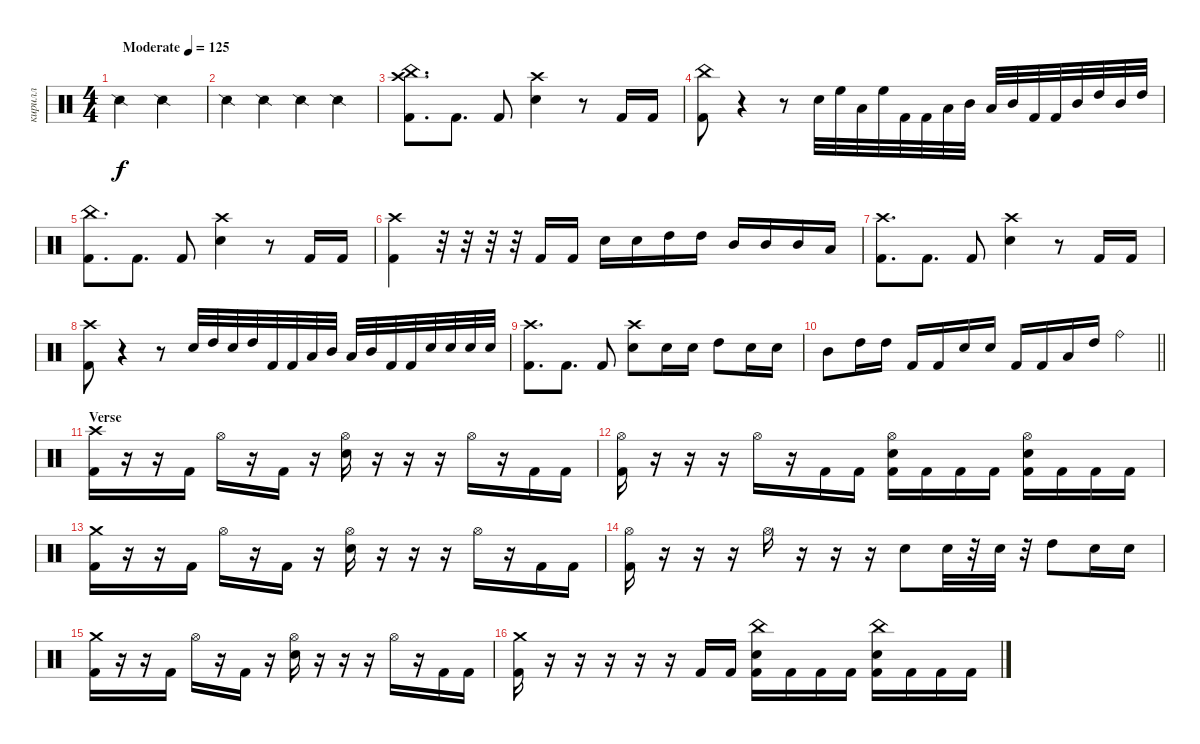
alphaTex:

\track ("кирилл" "кирилл") {instrument percussion}
\staff {score}
\articulation defaults
\ts (4 4)
\tempo (125 "Moderate")
\clef neutral
\ks c "Snare (side stick) 2".2{dy f} "Snare (side stick) 2".2
|
"Snare (side stick) 2".4 "Snare (side stick) 2".4 "Snare (side stick) 2".4 "Snare (side stick) 2".4 |
("Crash high (hit)" "China (hit)" "Kick (hit) 2").8{d} "Kick (hit) 2".8{d} "Kick (hit) 2".8 ("Crash high (hit)" "Electric Snare (hit)").4 r.8 "Kick (hit) 2".16 "Kick (hit) 2".16 |
("China (hit)" "Kick (hit) 2").8 r.4 r.8 "Electric Snare (hit)".32 "High Floor Tom (hit)".32 "Low Tom (hit)".32 "High Floor Tom (hit)".32 "Kick (hit) 2".32 "Kick (hit) 2".32 "Low Tom (hit)".32 "Mid Tom (hit)".32 "Low Tom (hit)".32 "Mid Tom (hit)".32 "Kick (hit) 2".32 "Kick (hit) 2".32 "Mid Tom (hit)".32 "High Tom (hit)".32 "Mid Tom (hit)".32 "High Tom (hit)".32 |
("China (hit)" "Kick (hit) 2").8{d} "Kick (hit) 2".8{d} "Kick (hit) 2".8 ("Crash high (hit)" "Electric Snare (hit)").4 r.8 "Kick (hit) 2".16 "Kick (hit) 2".16 |
("Crash high (hit)" "Kick (hit) 2").4 r.32 r.32 r.32 r.32 "Kick (hit) 2".16 "Kick (hit) 2".16 "Electric Snare (hit)".16 "Electric Snare (hit)".16 "High Tom (hit)".16 "High Tom (hit)".16 "Mid Tom (hit)".16 "Mid Tom (hit)".16 "Mid Tom (hit)".16 "Low Tom (hit)".16 |
("Crash high (hit)" "Kick (hit) 2").8{d} "Kick (hit) 2".8{d} "Kick (hit) 2".8 ("Crash high (hit)" "Electric Snare (hit)").4 r.8 "Kick (hit) 2".16 "Kick (hit) 2".16 |
("Crash high (hit)" "Kick (hit) 2").8 r.4 r.8 "Electric Snare (hit)".32 "High Tom (hit)".32 "Electric Snare (hit)".32 "High Tom (hit)".32 "Kick (hit) 2".32 "Kick (hit) 2".32 "Low Tom (hit)".32 "Mid Tom (hit)".32 "Low Tom (hit)".32 "Mid Tom (hit)".32 "Kick (hit) 2".32 "Kick (hit) 2".32 "Electric Snare (hit)".32 "Electric Snare (hit)".32 "Electric Snare (hit)".32 "Electric Snare (hit)".32 |
("Crash high (hit)" "Kick (hit) 2").8{d} "Kick (hit) 2".8{d} "Kick (hit) 2".8 ("Crash high (hit)" "Electric Snare (hit)").8 "Electric Snare (hit)".16 "Electric Snare (hit)".16 "High Tom (hit)".8 "Electric Snare (hit)".16 "Electric Snare (hit)".16 |
\barLineRight lightlight "Mid Tom (hit)".8 "High Tom (hit)".16 "High Tom (hit)".16 "Kick (hit) 2".16 "Kick (hit) 2".16 "Electric Snare (hit)".16 "Electric Snare (hit)".16 "Kick (hit) 2".16 "Kick (hit) 2".16 "Low Tom (hit)".16 "High Tom (hit)".16 "Ride (bell)".4
|
\section ("" "Verse")
("Crash high (hit)" "Kick (hit) 2").16 r.16 r.16 "Kick (hit) 2".16 "Hi-Hat (open)".16 r.16 "Kick (hit) 2".16 r.16 ("Hi-Hat (open)" "Electric Snare (hit)").16 r.16 r.16 r.16 "Hi-Hat (open)".16 r.16 "Kick (hit) 2".16 "Kick (hit) 2".16 |
("Hi-Hat (open)" "Kick (hit) 2").16 r.16 r.16 r.16 "Hi-Hat (open)".16 r.16 "Kick (hit) 2".16 "Kick (hit) 2".16 ("Hi-Hat (open)" "Electric Snare (hit)" "Kick (hit) 2").16 "Kick (hit) 2".16 "Kick (hit) 2".16 "Kick (hit) 2".16 ("Hi-Hat (open)" "Electric Snare (hit)" "Kick (hit) 2").16 "Kick (hit) 2".16 "Kick (hit) 2".16 "Kick (hit) 2".16 |
("Crash medium (hit)" "Kick (hit) 2").16 r.16 r.16 "Kick (hit) 2".16 "Hi-Hat (open)".16 r.16 "Kick (hit) 2".16 r.16 ("Hi-Hat (open)" "Electric Snare (hit)").16 r.16 r.16 r.16 "Hi-Hat (open)".16 r.16 "Kick (hit) 2".16 "Kick (hit) 2".16 |
("Hi-Hat (open)" "Kick (hit) 2").16 r.16 r.16 r.16 "Hi-Hat (open)".16 r.16 r.16 r.16 "Electric Snare (hit)".8 "Electric Snare (hit)".32 r.32 "Electric Snare (hit)".32 r.32 "High Tom (hit)".8 "Electric Snare (hit)".16 "Electric Snare (hit)".16 |
("Crash medium (hit)" "Kick (hit) 2").16 r.16 r.16 "Kick (hit) 2".16 "Hi-Hat (open)".16 r.16 "Kick (hit) 2".16 r.16 ("Hi-Hat (open)" "Electric Snare (hit)").16 r.16 r.16 r.16 "Hi-Hat (open)".16 r.16 "Kick (hit) 2".16 "Kick (hit) 2".16 |
("Crash medium (hit)" "Kick (hit) 2").16 r.16 r.16 r.16 r.16 r.16 "Kick (hit) 2".16 "Kick (hit) 2".16 ("China (hit)" "Electric Snare (hit)" "Kick (hit) 2").16 "Kick (hit) 2".16 "Kick (hit) 2".16 "Kick (hit) 2".16 ("China (hit)" "Electric Snare (hit)" "Kick (hit) 2").16 "Kick (hit) 2".16 "Kick (hit) 2".16 "Kick (hit) 2".16
